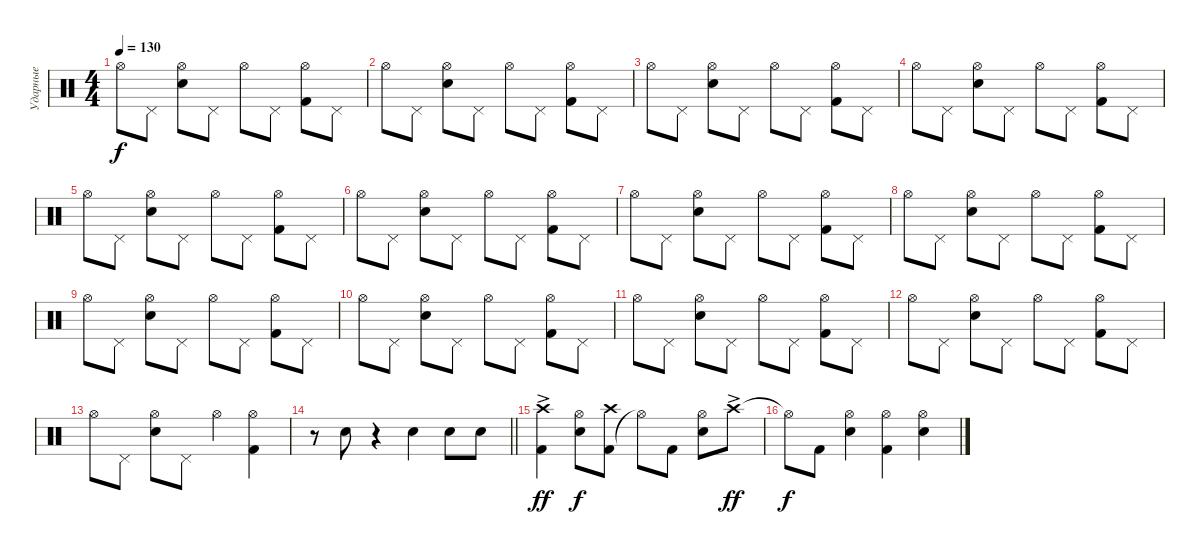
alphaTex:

\track ("Ударные" "Ударные") {instrument percussion}
\staff {score}
\articulation defaults
\ts (4 4)
\tempo 130
\clef neutral
\ks c "Hi-Hat (open)".8{dy f} "Pedal Hi-Hat (hit)".8
("Snare (hit) 2" "Hi-Hat (open)").8 "Pedal Hi-Hat (hit)".8 "Hi-Hat (open)".8 "Pedal Hi-Hat (hit)".8 ("Kick (hit) 2" "Hi-Hat (open)").8 "Pedal Hi-Hat (hit)".8 |
"Hi-Hat (open)".8 "Pedal Hi-Hat (hit)".8 ("Snare (hit) 2" "Hi-Hat (open)").8 "Pedal Hi-Hat (hit)".8 "Hi-Hat (open)".8 "Pedal Hi-Hat (hit)".8 ("Kick (hit) 2" "Hi-Hat (open)").8 "Pedal Hi-Hat (hit)".8 |
"Hi-Hat (open)".8 "Pedal Hi-Hat (hit)".8 ("Snare (hit) 2" "Hi-Hat (open)").8 "Pedal Hi-Hat (hit)".8 "Hi-Hat (open)".8 "Pedal Hi-Hat (hit)".8 ("Kick (hit) 2" "Hi-Hat (open)").8 "Pedal Hi-Hat (hit)".8 |
"Hi-Hat (open)".8 "Pedal Hi-Hat (hit)".8 ("Snare (hit) 2" "Hi-Hat (open)").8 "Pedal Hi-Hat (hit)".8 "Hi-Hat (open)".8 "Pedal Hi-Hat (hit)".8 ("Kick (hit) 2" "Hi-Hat (open)").8 "Pedal Hi-Hat (hit)".8 |
"Hi-Hat (open)".8 "Pedal Hi-Hat (hit)".8 ("Snare (hit) 2" "Hi-Hat (open)").8 "Pedal Hi-Hat (hit)".8 "Hi-Hat (open)".8 "Pedal Hi-Hat (hit)".8 ("Kick (hit) 2" "Hi-Hat (open)").8 "Pedal Hi-Hat (hit)".8 |
"Hi-Hat (open)".8 "Pedal Hi-Hat (hit)".8 ("Snare (hit) 2" "Hi-Hat (open)").8 "Pedal Hi-Hat (hit)".8 "Hi-Hat (open)".8 "Pedal Hi-Hat (hit)".8 ("Kick (hit) 2" "Hi-Hat (open)").8 "Pedal Hi-Hat (hit)".8 |
"Hi-Hat (open)".8 "Pedal Hi-Hat (hit)".8 ("Snare (hit) 2" "Hi-Hat (open)").8 "Pedal Hi-Hat (hit)".8 "Hi-Hat (open)".8 "Pedal Hi-Hat (hit)".8 ("Kick (hit) 2" "Hi-Hat (open)").8 "Pedal Hi-Hat (hit)".8 |
"Hi-Hat (open)".8 "Pedal Hi-Hat (hit)".8 ("Snare (hit) 2" "Hi-Hat (open)").8 "Pedal Hi-Hat (hit)".8 "Hi-Hat (open)".8 "Pedal Hi-Hat (hit)".8 ("Kick (hit) 2" "Hi-Hat (open)").8 "Pedal Hi-Hat (hit)".8 |
"Hi-Hat (open)".8 "Pedal Hi-Hat (hit)".8 ("Snare (hit) 2" "Hi-Hat (open)").8 "Pedal Hi-Hat (hit)".8 "Hi-Hat (open)".8 "Pedal Hi-Hat (hit)".8 ("Kick (hit) 2" "Hi-Hat (open)").8 "Pedal Hi-Hat (hit)".8 |
"Hi-Hat (open)".8 "Pedal Hi-Hat (hit)".8 ("Snare (hit) 2" "Hi-Hat (open)").8 "Pedal Hi-Hat (hit)".8 "Hi-Hat (open)".8 "Pedal Hi-Hat (hit)".8 ("Kick (hit) 2" "Hi-Hat (open)").8 "Pedal Hi-Hat (hit)".8 |
"Hi-Hat (open)".8 "Pedal Hi-Hat (hit)".8 ("Snare (hit) 2" "Hi-Hat (open)").8 "Pedal Hi-Hat (hit)".8 "Hi-Hat (open)".8 "Pedal Hi-Hat (hit)".8 ("Kick (hit) 2" "Hi-Hat (open)").8 "Pedal Hi-Hat (hit)".8 |
"Hi-Hat (open)".8 "Pedal Hi-Hat (hit)".8 ("Snare (hit) 2" "Hi-Hat (open)").8 "Pedal Hi-Hat (hit)".8 "Hi-Hat (open)".8 "Pedal Hi-Hat (hit)".8 ("Kick (hit) 2" "Hi-Hat (open)").8 "Pedal Hi-Hat (hit)".8 |
"Hi-Hat (open)".8 "Pedal Hi-Hat (hit)".8 ("Snare (hit) 2" "Hi-Hat (open)").8 "Pedal Hi-Hat (hit)".8 "Hi-Hat (open)".4 ("Kick (hit) 2" "Hi-Hat (open)").4 |
\barLineRight lightlight
r.8 "Snare (hit) 2".8 r.4 "Snare (hit) 2".4 "Snare (hit) 2".8 "Snare (hit) 2".8 |
("Kick (hit) 2" "Crash high (hit)"{ac}).4{dy ff} ("Snare (hit) 2" "Hi-Hat (open)").8{dy f} ("Kick (hit) 2" "Crash high (hit)").8 "Hi-Hat (open)"{t}.8 "Kick (hit) 2".8 ("Snare (hit) 2" "Hi-Hat (open)").8 "Crash high (hit)"{ac}.8{dy ff} |
"Hi-Hat (open)"{t}.8{dy f} "Kick (hit) 2".8 ("Snare (hit) 2" "Hi-Hat (open)").4 ("Kick (hit) 2" "Hi-Hat (open)").4 ("Snare (hit) 2" "Hi-Hat (open)").4
